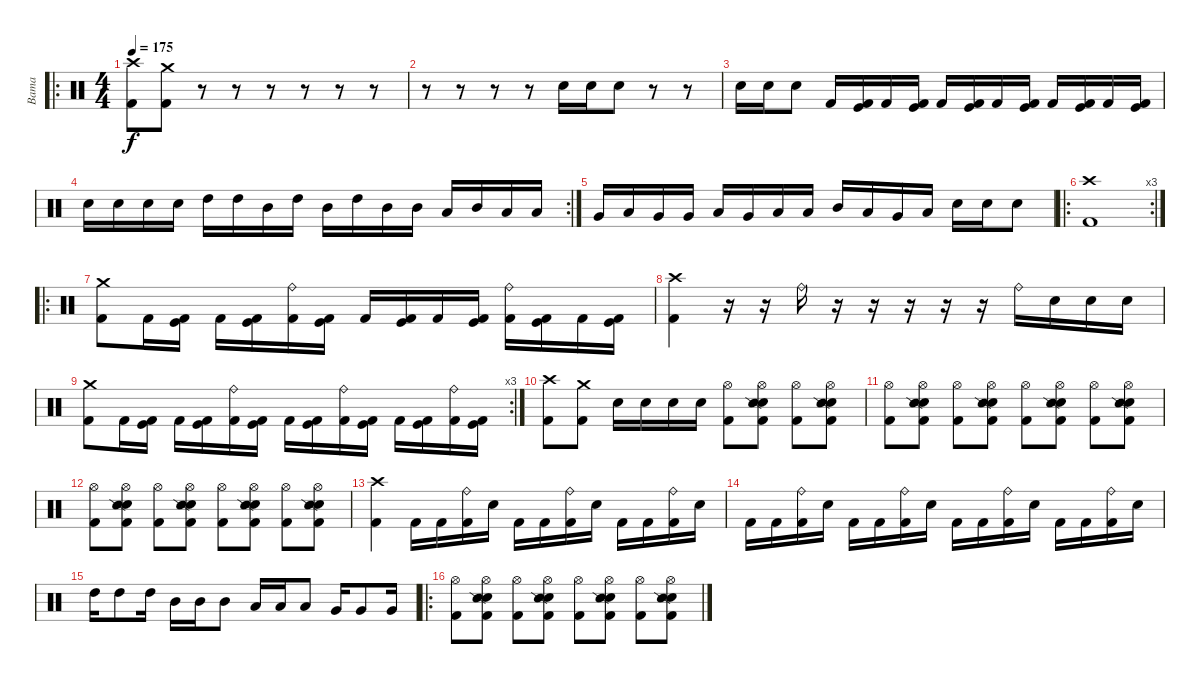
\track ("Bama" "Bama") {instrument percussion}
\staff {score}
\articulation defaults
\ro
\ts (4 4)
\tempo 175
\clef neutral
\ks c
("Crash high (hit)" "Kick (hit) 2").8{dy f} ("Crash medium (hit)" "Kick (hit) 2").8 r.8 r.8 r.8 r.8 r.8 r.8 |
r.8 r.8 r.8 r.8 "Electric Snare (hit)".16 "Electric Snare (hit)".16 "Electric Snare (hit)".8 r.8 r.8 |
"Electric Snare (hit)".16 "Electric Snare (hit)".16 "Electric Snare (hit)".8 "Kick (hit) 2".16 ("Kick (hit)" "Kick (hit) 2").16 "Kick (hit) 2".16 ("Kick (hit)" "Kick (hit) 2").16 "Kick (hit) 2".16 ("Kick (hit)" "Kick (hit) 2").16 "Kick (hit) 2".16 ("Kick (hit)" "Kick (hit) 2").16 "Kick (hit) 2".16 ("Kick (hit)" "Kick (hit) 2").16 "Kick (hit) 2".16 ("Kick (hit)" "Kick (hit) 2").16 |
\rc 2 "Electric Snare (hit)".16 "Electric Snare (hit)".16 "Electric Snare (hit)".16 "Electric Snare (hit)".16 "High Tom (hit)".16 "High Tom (hit)".16 "Mid Tom (hit)".16 "High Tom (hit)".16 "Mid Tom (hit)".16 "High Tom (hit)".16 "Mid Tom (hit)".16 "Mid Tom (hit)".16 "Low Tom (hit)".16 "Mid Tom (hit)".16 "Low Tom (hit)".16 "Low Tom (hit)".16
|
"Very Low Tom (hit)".16 "Low Tom (hit)".16 "Very Low Tom (hit)".16 "Very Low Tom (hit)".16 "Low Floor Tom (hit)".16 "Very Low Tom (hit)".16 "Low Floor Tom (hit)".16 "Low Floor Tom (hit)".16 "Mid Tom (hit)".16 "Low Tom (hit)".16 "Very Low Tom (hit)".16 "Low Floor Tom (hit)".16 "Electric Snare (hit)".16 "Electric Snare (hit)".16 "Electric Snare (hit)".8 |
\ro
\rc 3
("Crash high (hit)" "Kick (hit) 2").1 |
\ro
("Crash medium (hit)" "Kick (hit) 2").8 "Kick (hit) 2".16 ("Kick (hit)" "Kick (hit) 2").16 "Kick (hit) 2".16 ("Kick (hit)" "Kick (hit) 2").16 ("Ride (bell)" "Kick (hit) 2").16 ("Kick (hit)" "Kick (hit) 2").16 "Kick (hit) 2".16 ("Kick (hit)" "Kick (hit) 2").16 "Kick (hit) 2".16 ("Kick (hit)" "Kick (hit) 2").16 ("Ride (bell)" "Kick (hit) 2").16 ("Kick (hit)" "Kick (hit) 2").16 "Kick (hit) 2".16 ("Kick (hit)" "Kick (hit) 2").16 |
("Crash high (hit)" "Kick (hit) 2").4 r.16 r.16 "Ride (bell)".16 r.16 r.16 r.16 r.16 r.16 "Ride (bell)".16 "Electric Snare (hit)".16 "Electric Snare (hit)".16 "Electric Snare (hit)".16 |
\rc 3
("Crash medium (hit)" "Kick (hit) 2").8 "Kick (hit) 2".16 ("Kick (hit)" "Kick (hit) 2").16 "Kick (hit) 2".16 ("Kick (hit)" "Kick (hit) 2").16 ("Ride (bell)" "Kick (hit) 2").16 ("Kick (hit)" "Kick (hit) 2").16 "Kick (hit) 2".16 ("Kick (hit)" "Kick (hit) 2").16 ("Ride (bell)" "Kick (hit) 2").16 ("Kick (hit)" "Kick (hit) 2").16 "Kick (hit) 2".16 ("Kick (hit)" "Kick (hit) 2").16 ("Ride (bell)" "Kick (hit) 2").16 ("Kick (hit)" "Kick (hit) 2").16 |
("Crash high (hit)" "Kick (hit) 2").8 ("Crash medium (hit)" "Kick (hit) 2").8 "Electric Snare (hit)".16 "Electric Snare (hit)".16 "Electric Snare (hit)".16 "Electric Snare (hit)".16 ("Hi-Hat (open)" "Kick (hit) 2").8 ("Hi-Hat (open)" "Electric Snare (hit)" "Snare (side stick) 2" "Kick (hit) 2").8 ("Hi-Hat (open)" "Kick (hit) 2").8 ("Hi-Hat (open)" "Electric Snare (hit)" "Snare (side stick) 2" "Kick (hit) 2").8 |
("Hi-Hat (open)" "Kick (hit) 2").8 ("Hi-Hat (open)" "Electric Snare (hit)" "Snare (side stick) 2" "Kick (hit) 2").8 ("Hi-Hat (open)" "Kick (hit) 2").8 ("Hi-Hat (open)" "Electric Snare (hit)" "Snare (side stick) 2" "Kick (hit) 2").8 ("Hi-Hat (open)" "Kick (hit) 2").8 ("Hi-Hat (open)" "Electric Snare (hit)" "Snare (side stick) 2" "Kick (hit) 2").8 ("Hi-Hat (open)" "Kick (hit) 2").8 ("Hi-Hat (open)" "Electric Snare (hit)" "Snare (side stick) 2" "Kick (hit) 2").8 |
("Hi-Hat (open)" "Kick (hit) 2").8 ("Hi-Hat (open)" "Electric Snare (hit)" "Snare (side stick) 2" "Kick (hit) 2").8 ("Hi-Hat (open)" "Kick (hit) 2").8 ("Hi-Hat (open)" "Electric Snare (hit)" "Snare (side stick) 2" "Kick (hit) 2").8 ("Hi-Hat (open)" "Kick (hit) 2").8 ("Hi-Hat (open)" "Electric Snare (hit)" "Snare (side stick) 2" "Kick (hit) 2").8 ("Hi-Hat (open)" "Kick (hit) 2").8 ("Hi-Hat (open)" "Electric Snare (hit)" "Snare (side stick) 2" "Kick (hit) 2").8 |
("Crash high (hit)" "Kick (hit) 2").4 "Kick (hit) 2".16 "Kick (hit) 2".16 ("Ride (bell)" "Kick (hit) 2").16 "Electric Snare (hit)".16 "Kick (hit) 2".16 "Kick (hit) 2".16 ("Ride (bell)" "Kick (hit) 2").16 "Electric Snare (hit)".16 "Kick (hit) 2".16 "Kick (hit) 2".16 ("Ride (bell)" "Kick (hit) 2").16 "Electric Snare (hit)".16 |
"Kick (hit) 2".16 "Kick (hit) 2".16 ("Ride (bell)" "Kick (hit) 2").16 "Electric Snare (hit)".16 "Kick (hit) 2".16 "Kick (hit) 2".16 ("Ride (bell)" "Kick (hit) 2").16 "Electric Snare (hit)".16 "Kick (hit) 2".16 "Kick (hit) 2".16 ("Ride (bell)" "Kick (hit) 2").16 "Electric Snare (hit)".16 "Kick (hit) 2".16 "Kick (hit) 2".16 ("Ride (bell)" "Kick (hit) 2").16 "Electric Snare (hit)".16 |
"High Tom (hit)".16 "High Tom (hit)".8 "High Tom (hit)".16 "Mid Tom (hit)".16 "Mid Tom (hit)".16 "Mid Tom (hit)".8 "Low Tom (hit)".16 "Low Tom (hit)".16 "Low Tom (hit)".8 "Very Low Tom (hit)".16 "Very Low Tom (hit)".8 "Very Low Tom (hit)".16 |
\ro
("Hi-Hat (open)" "Kick (hit) 2").8 ("Hi-Hat (open)" "Electric Snare (hit)" "Snare (side stick) 2" "Kick (hit) 2").8 ("Hi-Hat (open)" "Kick (hit) 2").8 ("Hi-Hat (open)" "Electric Snare (hit)" "Snare (side stick) 2" "Kick (hit) 2").8 ("Hi-Hat (open)" "Kick (hit) 2").8 ("Hi-Hat (open)" "Electric Snare (hit)" "Snare (side stick) 2" "Kick (hit) 2").8 ("Hi-Hat (open)" "Kick (hit) 2").8 ("Hi-Hat (open)" "Electric Snare (hit)" "Snare (side stick) 2" "Kick (hit) 2").8
